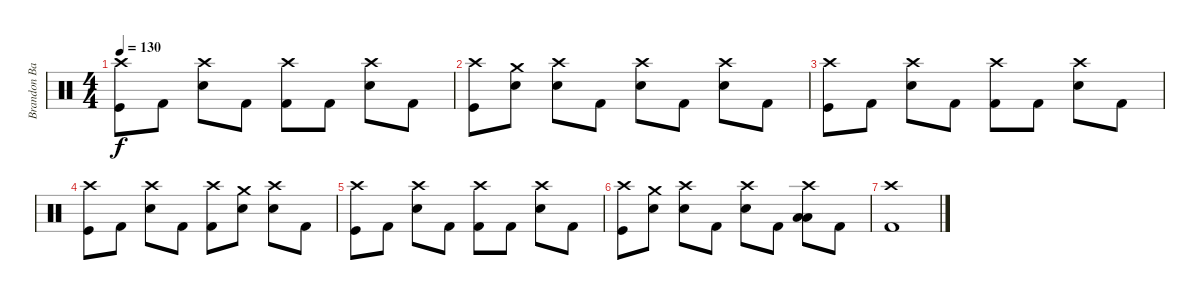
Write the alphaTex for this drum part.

\track ("Brandon Barnes - Drums" "Brandon Ba") {instrument percussion}
\staff {score}
\articulation defaults
\ts (4 4)
\tempo 130
\clef neutral
\ks c
("Crash high (hit)" "Kick (hit)").8{dy f} "Kick (hit) 2".8 ("Snare (hit) 2" "Crash high (hit)").8 "Kick (hit) 2".8 ("Kick (hit) 2" "Crash high (hit)").8 "Kick (hit) 2".8 ("Electric Snare (hit)" "Crash high (hit)").8 "Kick (hit) 2".8 |
("Crash high (hit)" "Kick (hit)").8 ("Crash medium (hit)" "Snare (hit) 2").8 ("Snare (hit) 2" "Crash high (hit)").8 "Kick (hit) 2".8 ("Snare (hit) 2" "Crash high (hit)").8 "Kick (hit) 2".8 ("Electric Snare (hit)" "Crash high (hit)").8 "Kick (hit) 2".8 |
("Crash high (hit)" "Kick (hit)").8 "Kick (hit) 2".8 ("Snare (hit) 2" "Crash high (hit)").8 "Kick (hit) 2".8 ("Kick (hit) 2" "Crash high (hit)").8 "Kick (hit) 2".8 ("Electric Snare (hit)" "Crash high (hit)").8 "Kick (hit) 2".8 |
("Crash high (hit)" "Kick (hit)").8 "Kick (hit) 2".8 ("Snare (hit) 2" "Crash high (hit)").8 "Kick (hit) 2".8 ("Kick (hit) 2" "Crash high (hit)").8 ("Snare (hit) 2" "Crash medium (hit)").8 ("Electric Snare (hit)" "Crash high (hit)").8 "Kick (hit) 2".8 |
("Crash high (hit)" "Kick (hit)").8 "Kick (hit) 2".8 ("Snare (hit) 2" "Crash high (hit)").8 "Kick (hit) 2".8 ("Kick (hit) 2" "Crash high (hit)").8 "Kick (hit) 2".8 ("Electric Snare (hit)" "Crash high (hit)").8 "Kick (hit) 2".8 |
("Crash high (hit)" "Kick (hit)").8 ("Crash medium (hit)" "Snare (hit) 2").8 ("Snare (hit) 2" "Crash high (hit)").8 "Kick (hit) 2".8 ("Snare (hit) 2" "Crash high (hit)").8 "Kick (hit) 2".8 ("Low Floor Tom (hit)" "Crash high (hit)" "Low Tom (hit)").8 "Kick (hit) 2".8 |
("Crash high (hit)" "Kick (hit) 2").1
